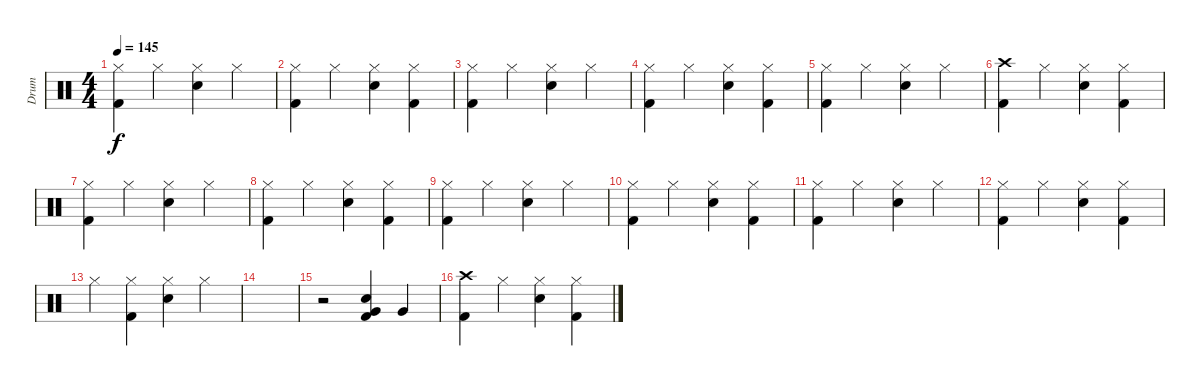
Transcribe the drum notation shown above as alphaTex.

\track ("Drum" "Drum") {instrument percussion}
\staff {score}
\articulation defaults
\ts (4 4)
\tempo 145
\clef neutral
\ks c
("Hi-Hat (closed)" "Kick (hit) 2").4{dy f} "Hi-Hat (closed)".4 ("Hi-Hat (closed)" "Snare (hit) 2").4 "Hi-Hat (closed)".4 |
("Hi-Hat (closed)" "Kick (hit) 2").4 "Hi-Hat (closed)".4 ("Hi-Hat (closed)" "Snare (hit) 2").4 ("Hi-Hat (closed)" "Kick (hit) 2").4 |
("Hi-Hat (closed)" "Kick (hit) 2").4 "Hi-Hat (closed)".4 ("Hi-Hat (closed)" "Snare (hit) 2").4 "Hi-Hat (closed)".4 |
("Hi-Hat (closed)" "Kick (hit) 2").4 "Hi-Hat (closed)".4 ("Hi-Hat (closed)" "Snare (hit) 2").4 ("Hi-Hat (closed)" "Kick (hit) 2").4 |
("Hi-Hat (closed)" "Kick (hit) 2").4 "Hi-Hat (closed)".4 ("Hi-Hat (closed)" "Snare (hit) 2").4 "Hi-Hat (closed)".4 |
("Crash high (hit)" "Kick (hit) 2").4 "Hi-Hat (closed)".4 ("Hi-Hat (closed)" "Snare (hit) 2").4 ("Hi-Hat (closed)" "Kick (hit) 2").4 |
("Hi-Hat (closed)" "Kick (hit) 2").4 "Hi-Hat (closed)".4 ("Hi-Hat (closed)" "Snare (hit) 2").4 "Hi-Hat (closed)".4 |
("Hi-Hat (closed)" "Kick (hit) 2").4 "Hi-Hat (closed)".4 ("Hi-Hat (closed)" "Snare (hit) 2").4 ("Hi-Hat (closed)" "Kick (hit) 2").4 |
("Hi-Hat (closed)" "Kick (hit) 2").4 "Hi-Hat (closed)".4 ("Hi-Hat (closed)" "Snare (hit) 2").4 "Hi-Hat (closed)".4 |
("Hi-Hat (closed)" "Kick (hit) 2").4 "Hi-Hat (closed)".4 ("Hi-Hat (closed)" "Snare (hit) 2").4 ("Hi-Hat (closed)" "Kick (hit) 2").4 |
("Hi-Hat (closed)" "Kick (hit) 2").4 "Hi-Hat (closed)".4 ("Hi-Hat (closed)" "Snare (hit) 2").4 "Hi-Hat (closed)".4 |
("Hi-Hat (closed)" "Kick (hit) 2").4 "Hi-Hat (closed)".4 ("Hi-Hat (closed)" "Snare (hit) 2").4 ("Hi-Hat (closed)" "Kick (hit) 2").4 |
"Hi-Hat (closed)".4 ("Hi-Hat (closed)" "Kick (hit) 2").4 ("Hi-Hat (closed)" "Snare (hit) 2").4 "Hi-Hat (closed)".4 |
|
r.2 ("Snare (hit) 2" "Very Low Tom (hit)" "Kick (hit) 2").4 "Very Low Tom (hit)".4 |
("Crash high (hit)" "Kick (hit) 2").4 "Hi-Hat (closed)".4 ("Hi-Hat (closed)" "Snare (hit) 2").4 ("Hi-Hat (closed)" "Kick (hit) 2").4
